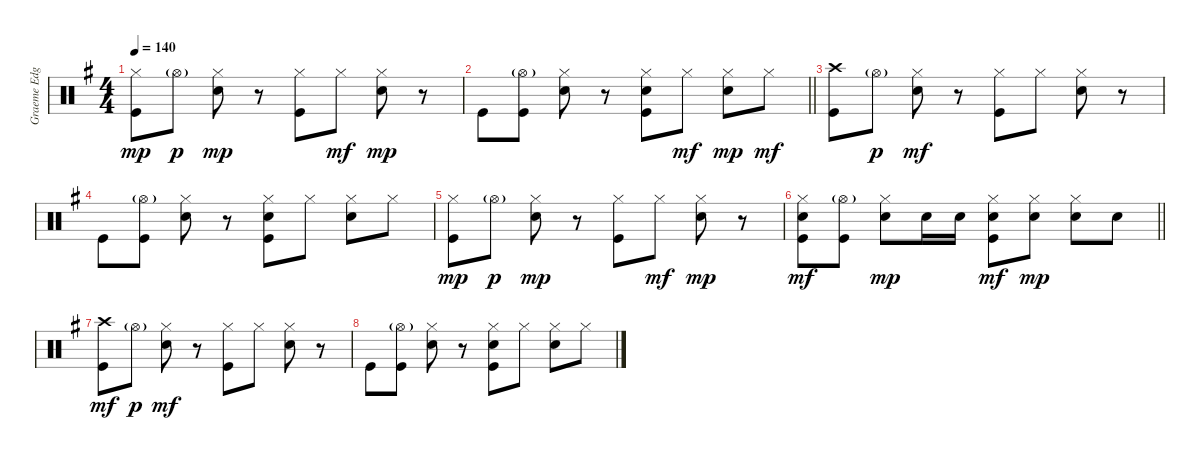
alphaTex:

\track ("Graeme Edge" "Graeme Edg") {instrument percussion}
\staff {score}
\articulation defaults
\ts (4 4)
\tempo 140
\clef neutral
\ks g
("Hi-Hat (closed)" "Kick (hit)").8{dy mp} "Hi-Hat (open)"{g}.8{dy p} ("Hi-Hat (closed)" "Snare (hit) 2").8{dy mp} r.8 ("Hi-Hat (closed)" "Kick (hit)").8 "Hi-Hat (closed)".8{dy mf} ("Hi-Hat (closed)" "Snare (hit) 2").8{dy mp} r.8 |
\barLineRight lightlight "Kick (hit)".8
("Hi-Hat (open)"{g} "Kick (hit)").8 ("Hi-Hat (closed)" "Snare (hit) 2").8 r.8 ("Hi-Hat (closed)" "Hand Clap (hit)" "Kick (hit)").8 "Hi-Hat (closed)".8{dy mf} ("Hi-Hat (closed)" "Snare (hit) 2").8{dy mp} "Hi-Hat (closed)".8{dy mf} |
\section ("" "")
("Crash high (hit)" "Kick (hit)").8 "Hi-Hat (open)"{g}.8{dy p} ("Hi-Hat (closed)" "Snare (hit) 2").8{dy mf} r.8 ("Hi-Hat (closed)" "Kick (hit)").8 "Hi-Hat (closed)".8 ("Hi-Hat (closed)" "Snare (hit) 2").8 r.8 |
"Kick (hit)".8 ("Hi-Hat (open)"{g} "Kick (hit)").8 ("Hi-Hat (closed)" "Snare (hit) 2").8 r.8 ("Hi-Hat (closed)" "Hand Clap (hit)" "Kick (hit)").8 "Hi-Hat (closed)".8 ("Hi-Hat (closed)" "Snare (hit) 2").8 "Hi-Hat (closed)".8 |
("Hi-Hat (closed)" "Kick (hit)").8{dy mp} "Hi-Hat (open)"{g}.8{dy p} ("Hi-Hat (closed)" "Snare (hit) 2").8{dy mp} r.8 ("Hi-Hat (closed)" "Kick (hit)").8 "Hi-Hat (closed)".8{dy mf} ("Hi-Hat (closed)" "Snare (hit) 2").8{dy mp} r.8 |
\barLineRight lightlight
("Hi-Hat (closed)" "Snare (hit) 2" "Kick (hit)").8{dy mf} ("Hi-Hat (open)"{g} "Kick (hit)").8 ("Hi-Hat (closed)" "Snare (hit) 2").8{dy mp} "Snare (hit) 2".16 "Snare (hit) 2".16 ("Hi-Hat (closed)" "Snare (hit) 2" "Kick (hit)").8{dy mf} ("Hi-Hat (closed)" "Snare (hit) 2").8{dy mp} ("Hi-Hat (closed)" "Snare (hit) 2").8 "Snare (hit) 2".8 |
\section ("" "")
("Crash high (hit)" "Kick (hit)").8{dy mf} "Hi-Hat (open)"{g}.8{dy p} ("Hi-Hat (closed)" "Snare (hit) 2").8{dy mf} r.8 ("Hi-Hat (closed)" "Kick (hit)").8 "Hi-Hat (closed)".8 ("Hi-Hat (closed)" "Snare (hit) 2").8 r.8 |
"Kick (hit)".8 ("Hi-Hat (open)"{g} "Kick (hit)").8 ("Hi-Hat (closed)" "Snare (hit) 2").8 r.8 ("Hi-Hat (closed)" "Hand Clap (hit)" "Kick (hit)").8 "Hi-Hat (closed)".8 ("Hi-Hat (closed)" "Snare (hit) 2").8 "Hi-Hat (closed)".8
